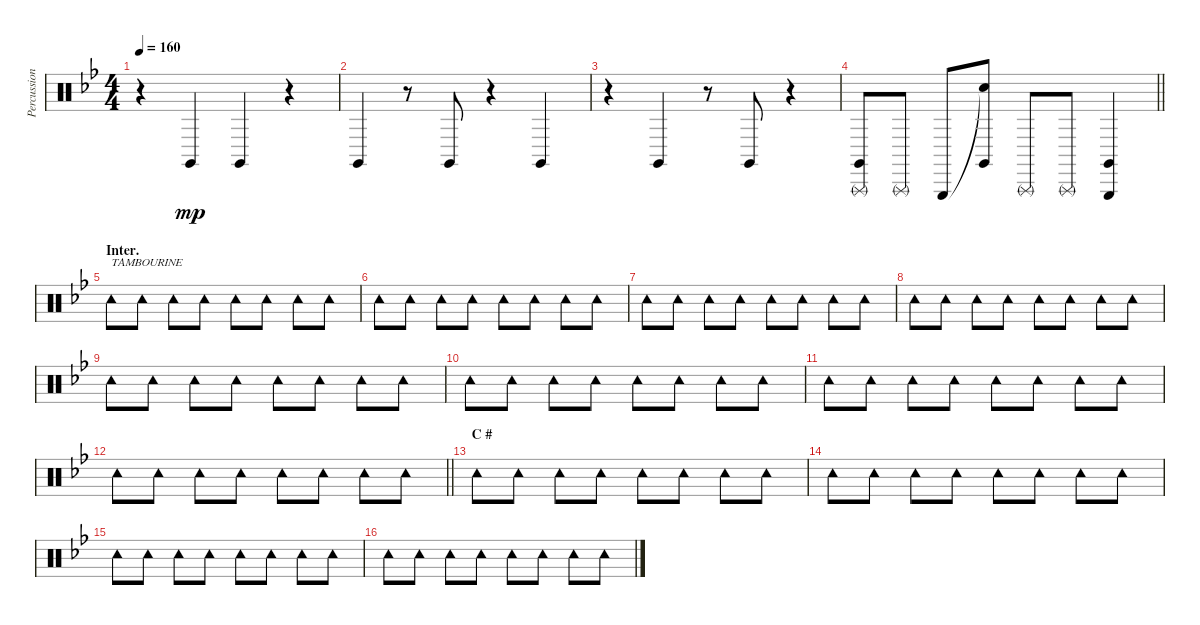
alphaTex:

\track ("Percussion (Tainaka Ritsu)" "Percussion") {instrument percussion}
\staff {score}
\articulation defaults
\ts (4 4)
\tempo 160
\clef neutral
\ks bb
r.4{dy mp} "Claves (hit)".4 "Claves (hit)".4 r.4 |
"Claves (hit)".4 r.8 "Claves (hit)".8 r.4 "Claves (hit)".4 |
r.4 "Claves (hit)".4 r.8 "Claves (hit)".8 r.4 |
\barLineRight lightlight
("Triangle (rnute)" "Claves (hit)").8 "Triangle (rnute)".8 "Triangle (hit)".8 ("Snare (hit)"{t} "Claves (hit)").8 "Triangle (rnute)".8 "Triangle (rnute)".8 ("Triangle (hit)" "Claves (hit)").4 |
\section ("" "Inter.")
"Tambourine (hit)".8{txt "TAMBOURINE"} "Tambourine (hit)".8 "Tambourine (hit)".8 "Tambourine (hit)".8 "Tambourine (hit)".8 "Tambourine (hit)".8 "Tambourine (hit)".8 "Tambourine (hit)".8 |
"Tambourine (hit)".8 "Tambourine (hit)".8 "Tambourine (hit)".8 "Tambourine (hit)".8 "Tambourine (hit)".8 "Tambourine (hit)".8 "Tambourine (hit)".8 "Tambourine (hit)".8 |
"Tambourine (hit)".8 "Tambourine (hit)".8 "Tambourine (hit)".8 "Tambourine (hit)".8 "Tambourine (hit)".8 "Tambourine (hit)".8 "Tambourine (hit)".8 "Tambourine (hit)".8 |
"Tambourine (hit)".8 "Tambourine (hit)".8 "Tambourine (hit)".8 "Tambourine (hit)".8 "Tambourine (hit)".8 "Tambourine (hit)".8 "Tambourine (hit)".8 "Tambourine (hit)".8 |
"Tambourine (hit)".8 "Tambourine (hit)".8 "Tambourine (hit)".8 "Tambourine (hit)".8 "Tambourine (hit)".8 "Tambourine (hit)".8 "Tambourine (hit)".8 "Tambourine (hit)".8 |
"Tambourine (hit)".8 "Tambourine (hit)".8 "Tambourine (hit)".8 "Tambourine (hit)".8 "Tambourine (hit)".8 "Tambourine (hit)".8 "Tambourine (hit)".8 "Tambourine (hit)".8 |
"Tambourine (hit)".8 "Tambourine (hit)".8 "Tambourine (hit)".8 "Tambourine (hit)".8 "Tambourine (hit)".8 "Tambourine (hit)".8 "Tambourine (hit)".8 "Tambourine (hit)".8 |
\barLineRight lightlight "Tambourine (hit)".8 "Tambourine (hit)".8 "Tambourine (hit)".8 "Tambourine (hit)".8 "Tambourine (hit)".8 "Tambourine (hit)".8 "Tambourine (hit)".8 "Tambourine (hit)".8
|
\section ("" "C #")
"Tambourine (hit)".8 "Tambourine (hit)".8 "Tambourine (hit)".8 "Tambourine (hit)".8 "Tambourine (hit)".8 "Tambourine (hit)".8 "Tambourine (hit)".8 "Tambourine (hit)".8 |
"Tambourine (hit)".8 "Tambourine (hit)".8 "Tambourine (hit)".8 "Tambourine (hit)".8 "Tambourine (hit)".8 "Tambourine (hit)".8 "Tambourine (hit)".8 "Tambourine (hit)".8 |
"Tambourine (hit)".8 "Tambourine (hit)".8 "Tambourine (hit)".8 "Tambourine (hit)".8 "Tambourine (hit)".8 "Tambourine (hit)".8 "Tambourine (hit)".8 "Tambourine (hit)".8 |
"Tambourine (hit)".8 "Tambourine (hit)".8 "Tambourine (hit)".8 "Tambourine (hit)".8 "Tambourine (hit)".8 "Tambourine (hit)".8 "Tambourine (hit)".8 "Tambourine (hit)".8
